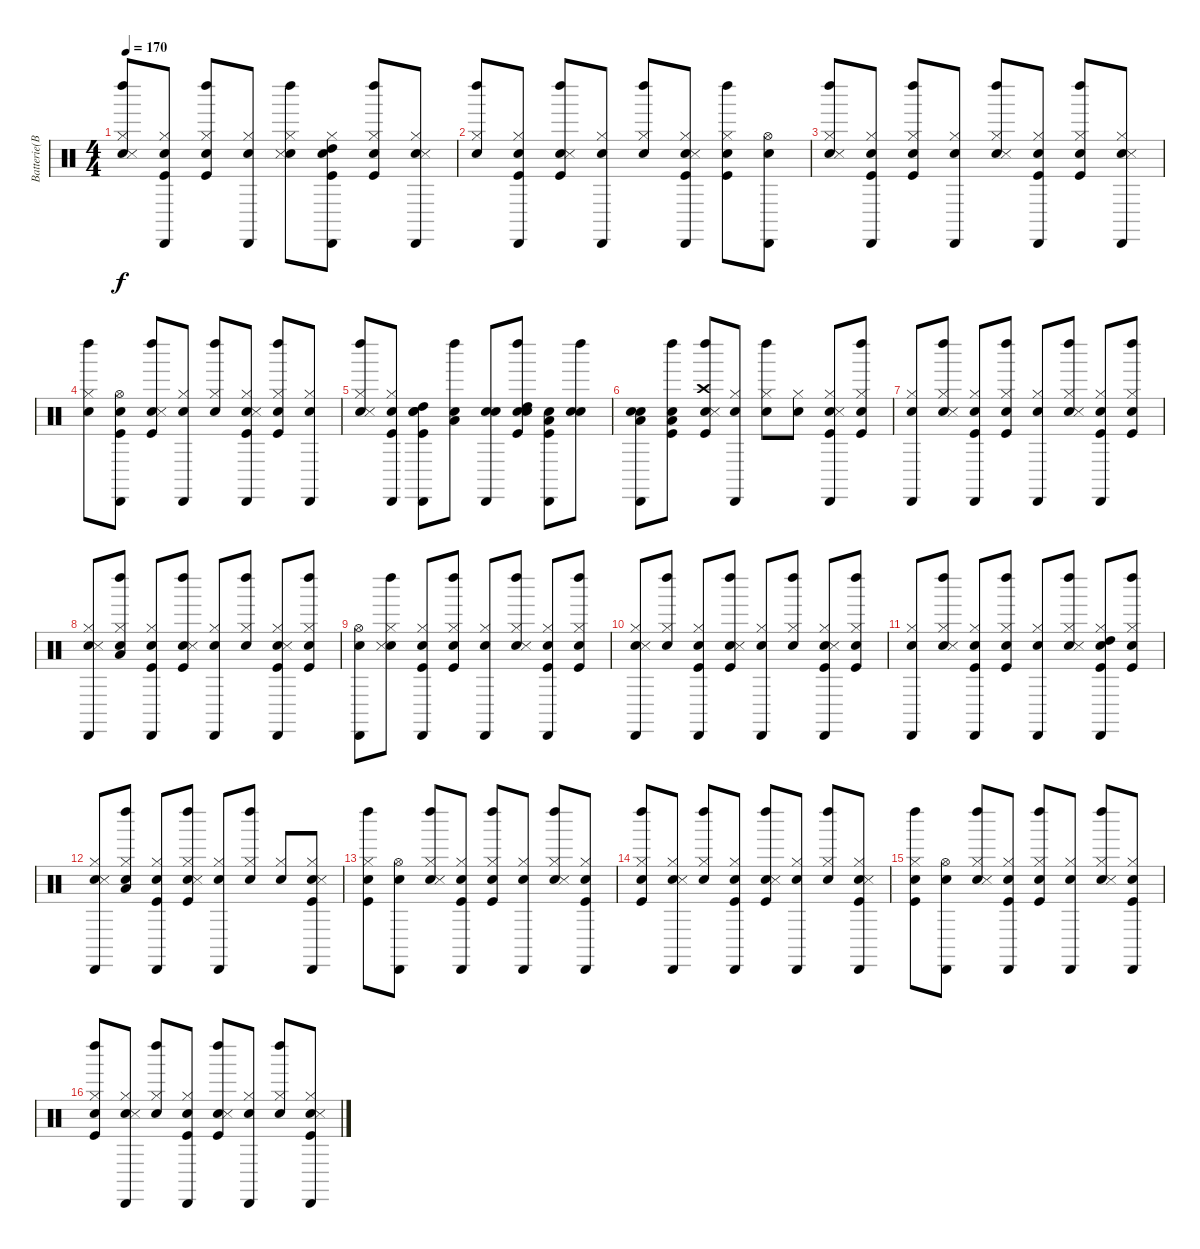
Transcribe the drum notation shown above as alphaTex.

\track ("Batterie(BB)" "Batterie(B") {instrument percussion}
\staff {score}
\articulation defaults
\ts (4 4)
\tempo 170
\clef neutral
\ks c
("Snare (hit)" "Hi-Hat (closed)" "Snare (side stick) 3" "Left Maraca (hit)").8{dy f} ("Snare (hit)" "Kick (hit)" "Hi-Hat (closed)" "Cabasa (hit)").8 ("Snare (hit)" "Kick (hit)" "Hi-Hat (closed)" "Left Maraca (hit)").8 ("Snare (hit)" "Hi-Hat (closed)" "Cabasa (hit)").8 ("Snare (hit)" "Hi-Hat (closed)" "Snare (side stick) 3" "Left Maraca (hit)").8 ("Snare (hit)" "Kick (hit)" "Hi-Hat (closed)" "High Tom (hit)" "Cabasa (hit)").8 ("Snare (hit)" "Kick (hit)" "Hi-Hat (closed)" "Left Maraca (hit)").8 ("Snare (hit)" "Hi-Hat (closed)" "Snare (side stick) 3" "Cabasa (hit)").8 |
("Snare (hit)" "Hi-Hat (closed)" "Left Maraca (hit)").8 ("Snare (hit)" "Kick (hit)" "Hi-Hat (closed)" "Cabasa (hit)").8 ("Snare (hit)" "Kick (hit)" "Snare (side stick) 3" "Left Maraca (hit)").8 ("Snare (hit)" "Hi-Hat (closed)" "Cabasa (hit)").8 ("Snare (hit)" "Hi-Hat (closed)" "Left Maraca (hit)").8 ("Snare (hit)" "Kick (hit)" "Hi-Hat (closed)" "Snare (side stick) 3" "Cabasa (hit)").8 ("Snare (hit)" "Kick (hit)" "Hi-Hat (closed)" "Left Maraca (hit)").8 ("Snare (hit)" "Hi-Hat (open)" "Cabasa (hit)").8 |
("Snare (hit)" "Hi-Hat (closed)" "Snare (side stick) 3" "Left Maraca (hit)").8 ("Snare (hit)" "Kick (hit)" "Hi-Hat (closed)" "Cabasa (hit)").8 ("Snare (hit)" "Kick (hit)" "Hi-Hat (closed)" "Left Maraca (hit)").8 ("Snare (hit)" "Hi-Hat (closed)" "Cabasa (hit)").8 ("Snare (hit)" "Hi-Hat (closed)" "Snare (side stick) 3" "Left Maraca (hit)").8 ("Snare (hit)" "Kick (hit)" "Hi-Hat (closed)" "Cabasa (hit)").8 ("Snare (hit)" "Kick (hit)" "Hi-Hat (closed)" "Left Maraca (hit)").8 ("Snare (hit)" "Hi-Hat (closed)" "Snare (side stick) 3" "Cabasa (hit)").8 |
("Snare (hit)" "Hi-Hat (closed)" "Left Maraca (hit)").8 ("Snare (hit)" "Kick (hit)" "Hi-Hat (open)" "Cabasa (hit)").8 ("Snare (hit)" "Kick (hit)" "Snare (side stick) 3" "Left Maraca (hit)").8 ("Snare (hit)" "Hi-Hat (closed)" "Cabasa (hit)").8 ("Snare (hit)" "Hi-Hat (closed)" "Left Maraca (hit)").8 ("Snare (hit)" "Kick (hit)" "Hi-Hat (closed)" "Snare (side stick) 3" "Cabasa (hit)").8 ("Snare (hit)" "Kick (hit)" "Hi-Hat (closed)" "Left Maraca (hit)").8 ("Snare (hit)" "Hi-Hat (closed)" "Cabasa (hit)").8 |
("Snare (hit)" "Hi-Hat (closed)" "Snare (side stick) 3" "Left Maraca (hit)").8 ("Snare (hit)" "Kick (hit)" "Hi-Hat (closed)" "Cabasa (hit)").8 ("Snare (hit)" "Kick (hit)" "Snare (hit) 2" "High Tom (hit)" "Cabasa (hit)").8 ("Snare (hit)" "Low Tom (hit)" "Left Maraca (hit)").8 ("Snare (hit)" "Snare (hit) 2" "Cabasa (hit)").8 ("Snare (hit)" "Kick (hit)" "Snare (hit) 2" "High Tom (hit)" "Left Maraca (hit)").8 ("Snare (hit)" "Kick (hit)" "Low Tom (hit)" "Cabasa (hit)").8 ("Snare (hit)" "Snare (hit) 2" "Left Maraca (hit)").8 |
("Snare (hit)" "Snare (hit) 2" "Low Tom (hit)" "Cabasa (hit)").8 ("Snare (hit)" "Kick (hit)" "Low Floor Tom (hit)" "Left Maraca (hit)").8 ("Snare (hit)" "Kick (hit)" "Snare (side stick) 3" "Crash high (hit)" "Left Maraca (hit)").8 ("Snare (hit)" "Hi-Hat (closed)" "Cabasa (hit)").8 ("Snare (hit)" "Hi-Hat (closed)" "Left Maraca (hit)").8 ("Snare (hit)" "Hi-Hat (closed)").8 ("Snare (hit)" "Kick (hit)" "Hi-Hat (closed)" "Snare (side stick) 3" "Cabasa (hit)").8 ("Snare (hit)" "Kick (hit)" "Hi-Hat (closed)" "Left Maraca (hit)").8 |
("Snare (hit)" "Hi-Hat (closed)" "Cabasa (hit)").8 ("Snare (hit)" "Hi-Hat (closed)" "Snare (side stick) 3" "Left Maraca (hit)").8 ("Snare (hit)" "Kick (hit)" "Hi-Hat (closed)" "Cabasa (hit)").8 ("Snare (hit)" "Kick (hit)" "Hi-Hat (closed)" "Left Maraca (hit)").8 ("Snare (hit)" "Hi-Hat (closed)" "Cabasa (hit)").8 ("Snare (hit)" "Hi-Hat (closed)" "Snare (side stick) 3" "Left Maraca (hit)").8 ("Snare (hit)" "Kick (hit)" "Hi-Hat (closed)" "Cabasa (hit)").8 ("Snare (hit)" "Kick (hit)" "Hi-Hat (closed)" "Left Maraca (hit)").8 |
("Snare (hit)" "Hi-Hat (closed)" "Snare (side stick) 3" "Cabasa (hit)").8 ("Snare (hit)" "Hi-Hat (closed)" "Low Tom (hit)" "Left Maraca (hit)").8 ("Snare (hit)" "Kick (hit)" "Hi-Hat (closed)" "Cabasa (hit)").8 ("Snare (hit)" "Kick (hit)" "Snare (side stick) 3" "Left Maraca (hit)").8 ("Snare (hit)" "Hi-Hat (closed)" "Cabasa (hit)").8 ("Snare (hit)" "Hi-Hat (closed)" "Left Maraca (hit)").8 ("Snare (hit)" "Kick (hit)" "Hi-Hat (closed)" "Snare (side stick) 3" "Cabasa (hit)").8 ("Snare (hit)" "Kick (hit)" "Hi-Hat (closed)" "Left Maraca (hit)").8 |
("Snare (hit)" "Hi-Hat (open)" "Cabasa (hit)").8 ("Snare (hit)" "Hi-Hat (closed)" "Snare (side stick) 3" "Left Maraca (hit)").8 ("Snare (hit)" "Kick (hit)" "Hi-Hat (closed)" "Cabasa (hit)").8 ("Snare (hit)" "Kick (hit)" "Hi-Hat (closed)" "Left Maraca (hit)").8 ("Snare (hit)" "Hi-Hat (closed)" "Cabasa (hit)").8 ("Snare (hit)" "Hi-Hat (closed)" "Snare (side stick) 3" "Left Maraca (hit)").8 ("Snare (hit)" "Kick (hit)" "Hi-Hat (closed)" "Cabasa (hit)").8 ("Snare (hit)" "Kick (hit)" "Hi-Hat (closed)" "Left Maraca (hit)").8 |
("Snare (hit)" "Hi-Hat (closed)" "Snare (side stick) 3" "Cabasa (hit)").8 ("Snare (hit)" "Hi-Hat (closed)" "Left Maraca (hit)").8 ("Snare (hit)" "Kick (hit)" "Hi-Hat (closed)" "Cabasa (hit)").8 ("Snare (hit)" "Kick (hit)" "Snare (side stick) 3" "Left Maraca (hit)").8 ("Snare (hit)" "Hi-Hat (closed)" "Cabasa (hit)").8 ("Snare (hit)" "Hi-Hat (closed)" "Left Maraca (hit)").8 ("Snare (hit)" "Kick (hit)" "Hi-Hat (closed)" "Snare (side stick) 3" "Cabasa (hit)").8 ("Snare (hit)" "Kick (hit)" "Hi-Hat (closed)" "Left Maraca (hit)").8 |
("Snare (hit)" "Hi-Hat (closed)" "Cabasa (hit)").8 ("Snare (hit)" "Hi-Hat (closed)" "Snare (side stick) 3" "Left Maraca (hit)").8 ("Snare (hit)" "Kick (hit)" "Hi-Hat (closed)" "Cabasa (hit)").8 ("Snare (hit)" "Kick (hit)" "Hi-Hat (closed)" "Left Maraca (hit)").8 ("Snare (hit)" "Hi-Hat (closed)" "Cabasa (hit)").8 ("Snare (hit)" "Hi-Hat (closed)" "Snare (side stick) 3" "Left Maraca (hit)").8 ("Snare (hit)" "Kick (hit)" "Hi-Hat (closed)" "High Tom (hit)" "Cabasa (hit)").8 ("Snare (hit)" "Kick (hit)" "Hi-Hat (closed)" "Left Maraca (hit)").8 |
("Snare (hit)" "Hi-Hat (closed)" "Snare (side stick) 3" "Cabasa (hit)").8 ("Snare (hit)" "Hi-Hat (closed)" "Low Tom (hit)" "Left Maraca (hit)").8 ("Snare (hit)" "Kick (hit)" "Hi-Hat (closed)" "Cabasa (hit)").8 ("Snare (hit)" "Kick (hit)" "Hi-Hat (closed)" "Snare (side stick) 3" "Left Maraca (hit)").8 ("Snare (hit)" "Hi-Hat (closed)" "Cabasa (hit)").8 ("Snare (hit)" "Hi-Hat (closed)" "Left Maraca (hit)").8 ("Snare (hit)" "Hi-Hat (closed)").8 ("Snare (hit)" "Kick (hit)" "Hi-Hat (closed)" "Snare (side stick) 3" "Cabasa (hit)").8 |
("Snare (hit)" "Kick (hit)" "Hi-Hat (closed)" "Left Maraca (hit)").8 ("Snare (hit)" "Hi-Hat (open)" "Cabasa (hit)").8 ("Snare (hit)" "Hi-Hat (closed)" "Snare (side stick) 3" "Left Maraca (hit)").8 ("Snare (hit)" "Kick (hit)" "Hi-Hat (closed)" "Cabasa (hit)").8 ("Snare (hit)" "Kick (hit)" "Hi-Hat (closed)" "Left Maraca (hit)").8 ("Snare (hit)" "Hi-Hat (closed)" "Cabasa (hit)").8 ("Snare (hit)" "Hi-Hat (closed)" "Snare (side stick) 3" "Left Maraca (hit)").8 ("Snare (hit)" "Kick (hit)" "Hi-Hat (closed)" "Cabasa (hit)").8 |
("Snare (hit)" "Kick (hit)" "Hi-Hat (closed)" "Left Maraca (hit)").8 ("Snare (hit)" "Hi-Hat (closed)" "Snare (side stick) 3" "Cabasa (hit)").8 ("Snare (hit)" "Hi-Hat (closed)" "Left Maraca (hit)").8 ("Snare (hit)" "Kick (hit)" "Hi-Hat (closed)" "Cabasa (hit)").8 ("Snare (hit)" "Kick (hit)" "Snare (side stick) 3" "Left Maraca (hit)").8 ("Snare (hit)" "Hi-Hat (closed)" "Cabasa (hit)").8 ("Snare (hit)" "Hi-Hat (closed)" "Left Maraca (hit)").8 ("Snare (hit)" "Kick (hit)" "Hi-Hat (closed)" "Snare (side stick) 3" "Cabasa (hit)").8 |
("Snare (hit)" "Kick (hit)" "Hi-Hat (closed)" "Left Maraca (hit)").8 ("Snare (hit)" "Hi-Hat (open)" "Cabasa (hit)").8 ("Snare (hit)" "Hi-Hat (closed)" "Snare (side stick) 3" "Left Maraca (hit)").8 ("Snare (hit)" "Kick (hit)" "Hi-Hat (closed)" "Cabasa (hit)").8 ("Snare (hit)" "Kick (hit)" "Hi-Hat (closed)" "Left Maraca (hit)").8 ("Snare (hit)" "Hi-Hat (closed)" "Cabasa (hit)").8 ("Snare (hit)" "Hi-Hat (closed)" "Snare (side stick) 3" "Left Maraca (hit)").8 ("Snare (hit)" "Kick (hit)" "Hi-Hat (closed)" "Cabasa (hit)").8 |
("Snare (hit)" "Kick (hit)" "Hi-Hat (closed)" "Left Maraca (hit)").8 ("Snare (hit)" "Hi-Hat (closed)" "Snare (side stick) 3" "Cabasa (hit)").8 ("Snare (hit)" "Hi-Hat (closed)" "Left Maraca (hit)").8 ("Snare (hit)" "Kick (hit)" "Hi-Hat (closed)" "Cabasa (hit)").8 ("Snare (hit)" "Kick (hit)" "Snare (side stick) 3" "Left Maraca (hit)").8 ("Snare (hit)" "Hi-Hat (closed)" "Cabasa (hit)").8 ("Snare (hit)" "Hi-Hat (closed)" "Left Maraca (hit)").8 ("Snare (hit)" "Kick (hit)" "Hi-Hat (closed)" "Snare (side stick) 3" "Cabasa (hit)").8
